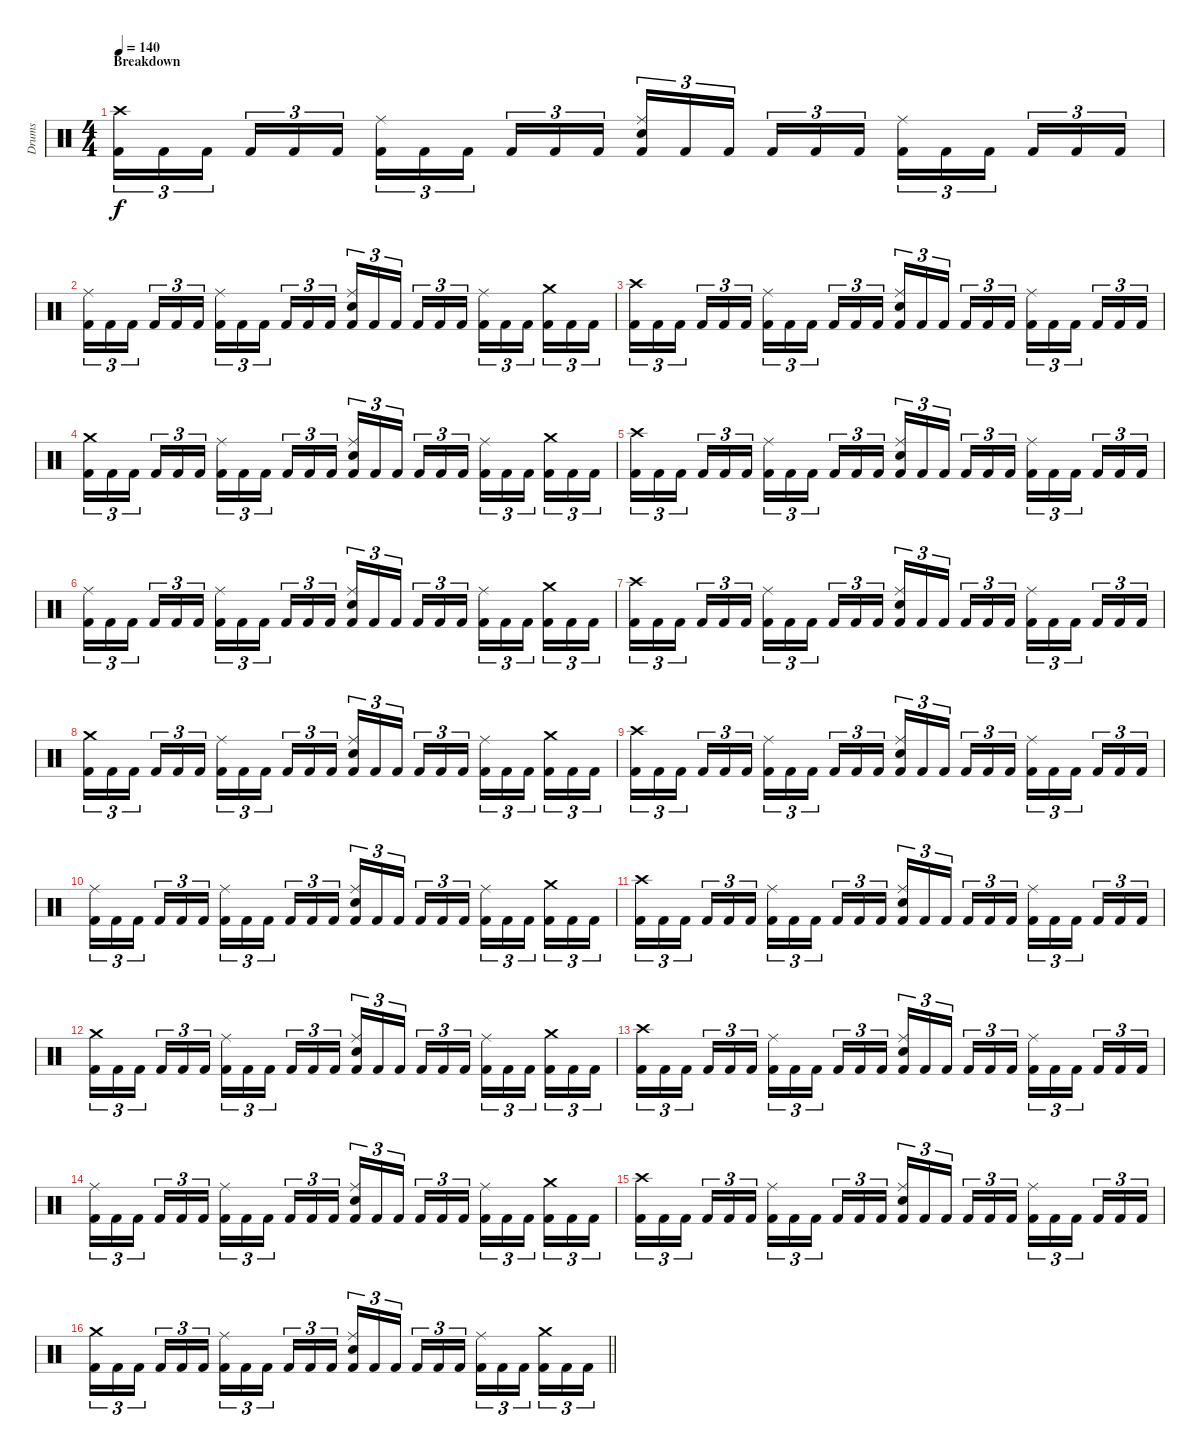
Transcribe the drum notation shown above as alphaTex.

\track ("Drums" "Drums") {instrument percussion}
\staff {score}
\articulation defaults
\ts (4 4)
\section ("" "Breakdown")
\tempo 140
\clef neutral
\ks c
("Crash high (hit)" "Kick (hit) 2").16{tu (3 2) dy f} "Kick (hit) 2".16{tu (3 2)} "Kick (hit) 2".16{tu (3 2) beam splitsecondary} "Kick (hit) 2".16{tu (3 2)} "Kick (hit) 2".16{tu (3 2)} "Kick (hit) 2".16{tu (3 2)} ("Ride (middle)" "Kick (hit) 2").16{tu (3 2)} "Kick (hit) 2".16{tu (3 2)} "Kick (hit) 2".16{tu (3 2) beam splitsecondary} "Kick (hit) 2".16{tu (3 2)} "Kick (hit) 2".16{tu (3 2)} "Kick (hit) 2".16{tu (3 2)} ("Ride (middle)" "Snare (hit) 2" "Kick (hit) 2").16{tu (3 2)} "Kick (hit) 2".16{tu (3 2)} "Kick (hit) 2".16{tu (3 2) beam splitsecondary} "Kick (hit) 2".16{tu (3 2)} "Kick (hit) 2".16{tu (3 2)} "Kick (hit) 2".16{tu (3 2)} ("Ride (middle)" "Kick (hit) 2").16{tu (3 2)} "Kick (hit) 2".16{tu (3 2)} "Kick (hit) 2".16{tu (3 2) beam splitsecondary} "Kick (hit) 2".16{tu (3 2)} "Kick (hit) 2".16{tu (3 2)} "Kick (hit) 2".16{tu (3 2)} |
("Ride (middle)" "Kick (hit) 2").16{tu (3 2)} "Kick (hit) 2".16{tu (3 2)} "Kick (hit) 2".16{tu (3 2) beam splitsecondary} "Kick (hit) 2".16{tu (3 2)} "Kick (hit) 2".16{tu (3 2)} "Kick (hit) 2".16{tu (3 2)} ("Ride (middle)" "Kick (hit) 2").16{tu (3 2)} "Kick (hit) 2".16{tu (3 2)} "Kick (hit) 2".16{tu (3 2) beam splitsecondary} "Kick (hit) 2".16{tu (3 2)} "Kick (hit) 2".16{tu (3 2)} "Kick (hit) 2".16{tu (3 2)} ("Ride (middle)" "Snare (hit) 2" "Kick (hit) 2").16{tu (3 2)} "Kick (hit) 2".16{tu (3 2)} "Kick (hit) 2".16{tu (3 2) beam splitsecondary} "Kick (hit) 2".16{tu (3 2)} "Kick (hit) 2".16{tu (3 2)} "Kick (hit) 2".16{tu (3 2)} ("Ride (middle)" "Kick (hit) 2").16{tu (3 2)} "Kick (hit) 2".16{tu (3 2)} "Kick (hit) 2".16{tu (3 2) beam splitsecondary} ("Crash medium (hit)" "Kick (hit) 2").16{tu (3 2)} "Kick (hit) 2".16{tu (3 2)} "Kick (hit) 2".16{tu (3 2)} |
("Crash high (hit)" "Kick (hit) 2").16{tu (3 2)} "Kick (hit) 2".16{tu (3 2)} "Kick (hit) 2".16{tu (3 2) beam splitsecondary} "Kick (hit) 2".16{tu (3 2)} "Kick (hit) 2".16{tu (3 2)} "Kick (hit) 2".16{tu (3 2)} ("Ride (middle)" "Kick (hit) 2").16{tu (3 2)} "Kick (hit) 2".16{tu (3 2)} "Kick (hit) 2".16{tu (3 2) beam splitsecondary} "Kick (hit) 2".16{tu (3 2)} "Kick (hit) 2".16{tu (3 2)} "Kick (hit) 2".16{tu (3 2)} ("Ride (middle)" "Snare (hit) 2" "Kick (hit) 2").16{tu (3 2)} "Kick (hit) 2".16{tu (3 2)} "Kick (hit) 2".16{tu (3 2) beam splitsecondary} "Kick (hit) 2".16{tu (3 2)} "Kick (hit) 2".16{tu (3 2)} "Kick (hit) 2".16{tu (3 2)} ("Ride (middle)" "Kick (hit) 2").16{tu (3 2)} "Kick (hit) 2".16{tu (3 2)} "Kick (hit) 2".16{tu (3 2) beam splitsecondary} "Kick (hit) 2".16{tu (3 2)} "Kick (hit) 2".16{tu (3 2)} "Kick (hit) 2".16{tu (3 2)} |
("Crash medium (hit)" "Kick (hit) 2").16{tu (3 2)} "Kick (hit) 2".16{tu (3 2)} "Kick (hit) 2".16{tu (3 2) beam splitsecondary} "Kick (hit) 2".16{tu (3 2)} "Kick (hit) 2".16{tu (3 2)} "Kick (hit) 2".16{tu (3 2)} ("Ride (middle)" "Kick (hit) 2").16{tu (3 2)} "Kick (hit) 2".16{tu (3 2)} "Kick (hit) 2".16{tu (3 2) beam splitsecondary} "Kick (hit) 2".16{tu (3 2)} "Kick (hit) 2".16{tu (3 2)} "Kick (hit) 2".16{tu (3 2)} ("Ride (middle)" "Snare (hit) 2" "Kick (hit) 2").16{tu (3 2)} "Kick (hit) 2".16{tu (3 2)} "Kick (hit) 2".16{tu (3 2) beam splitsecondary} "Kick (hit) 2".16{tu (3 2)} "Kick (hit) 2".16{tu (3 2)} "Kick (hit) 2".16{tu (3 2)} ("Ride (middle)" "Kick (hit) 2").16{tu (3 2)} "Kick (hit) 2".16{tu (3 2)} "Kick (hit) 2".16{tu (3 2) beam splitsecondary} ("Crash medium (hit)" "Kick (hit) 2").16{tu (3 2)} "Kick (hit) 2".16{tu (3 2)} "Kick (hit) 2".16{tu (3 2)} |
("Crash high (hit)" "Kick (hit) 2").16{tu (3 2)} "Kick (hit) 2".16{tu (3 2)} "Kick (hit) 2".16{tu (3 2) beam splitsecondary} "Kick (hit) 2".16{tu (3 2)} "Kick (hit) 2".16{tu (3 2)} "Kick (hit) 2".16{tu (3 2)} ("Ride (middle)" "Kick (hit) 2").16{tu (3 2)} "Kick (hit) 2".16{tu (3 2)} "Kick (hit) 2".16{tu (3 2) beam splitsecondary} "Kick (hit) 2".16{tu (3 2)} "Kick (hit) 2".16{tu (3 2)} "Kick (hit) 2".16{tu (3 2)} ("Ride (middle)" "Snare (hit) 2" "Kick (hit) 2").16{tu (3 2)} "Kick (hit) 2".16{tu (3 2)} "Kick (hit) 2".16{tu (3 2) beam splitsecondary} "Kick (hit) 2".16{tu (3 2)} "Kick (hit) 2".16{tu (3 2)} "Kick (hit) 2".16{tu (3 2)} ("Ride (middle)" "Kick (hit) 2").16{tu (3 2)} "Kick (hit) 2".16{tu (3 2)} "Kick (hit) 2".16{tu (3 2) beam splitsecondary} "Kick (hit) 2".16{tu (3 2)} "Kick (hit) 2".16{tu (3 2)} "Kick (hit) 2".16{tu (3 2)} |
("Ride (middle)" "Kick (hit) 2").16{tu (3 2)} "Kick (hit) 2".16{tu (3 2)} "Kick (hit) 2".16{tu (3 2) beam splitsecondary} "Kick (hit) 2".16{tu (3 2)} "Kick (hit) 2".16{tu (3 2)} "Kick (hit) 2".16{tu (3 2)} ("Ride (middle)" "Kick (hit) 2").16{tu (3 2)} "Kick (hit) 2".16{tu (3 2)} "Kick (hit) 2".16{tu (3 2) beam splitsecondary} "Kick (hit) 2".16{tu (3 2)} "Kick (hit) 2".16{tu (3 2)} "Kick (hit) 2".16{tu (3 2)} ("Ride (middle)" "Snare (hit) 2" "Kick (hit) 2").16{tu (3 2)} "Kick (hit) 2".16{tu (3 2)} "Kick (hit) 2".16{tu (3 2) beam splitsecondary} "Kick (hit) 2".16{tu (3 2)} "Kick (hit) 2".16{tu (3 2)} "Kick (hit) 2".16{tu (3 2)} ("Ride (middle)" "Kick (hit) 2").16{tu (3 2)} "Kick (hit) 2".16{tu (3 2)} "Kick (hit) 2".16{tu (3 2) beam splitsecondary} ("Crash medium (hit)" "Kick (hit) 2").16{tu (3 2)} "Kick (hit) 2".16{tu (3 2)} "Kick (hit) 2".16{tu (3 2)} |
("Crash high (hit)" "Kick (hit) 2").16{tu (3 2)} "Kick (hit) 2".16{tu (3 2)} "Kick (hit) 2".16{tu (3 2) beam splitsecondary} "Kick (hit) 2".16{tu (3 2)} "Kick (hit) 2".16{tu (3 2)} "Kick (hit) 2".16{tu (3 2)} ("Ride (middle)" "Kick (hit) 2").16{tu (3 2)} "Kick (hit) 2".16{tu (3 2)} "Kick (hit) 2".16{tu (3 2) beam splitsecondary} "Kick (hit) 2".16{tu (3 2)} "Kick (hit) 2".16{tu (3 2)} "Kick (hit) 2".16{tu (3 2)} ("Ride (middle)" "Snare (hit) 2" "Kick (hit) 2").16{tu (3 2)} "Kick (hit) 2".16{tu (3 2)} "Kick (hit) 2".16{tu (3 2) beam splitsecondary} "Kick (hit) 2".16{tu (3 2)} "Kick (hit) 2".16{tu (3 2)} "Kick (hit) 2".16{tu (3 2)} ("Ride (middle)" "Kick (hit) 2").16{tu (3 2)} "Kick (hit) 2".16{tu (3 2)} "Kick (hit) 2".16{tu (3 2) beam splitsecondary} "Kick (hit) 2".16{tu (3 2)} "Kick (hit) 2".16{tu (3 2)} "Kick (hit) 2".16{tu (3 2)} |
("Crash medium (hit)" "Kick (hit) 2").16{tu (3 2)} "Kick (hit) 2".16{tu (3 2)} "Kick (hit) 2".16{tu (3 2) beam splitsecondary} "Kick (hit) 2".16{tu (3 2)} "Kick (hit) 2".16{tu (3 2)} "Kick (hit) 2".16{tu (3 2)} ("Ride (middle)" "Kick (hit) 2").16{tu (3 2)} "Kick (hit) 2".16{tu (3 2)} "Kick (hit) 2".16{tu (3 2) beam splitsecondary} "Kick (hit) 2".16{tu (3 2)} "Kick (hit) 2".16{tu (3 2)} "Kick (hit) 2".16{tu (3 2)} ("Ride (middle)" "Snare (hit) 2" "Kick (hit) 2").16{tu (3 2)} "Kick (hit) 2".16{tu (3 2)} "Kick (hit) 2".16{tu (3 2) beam splitsecondary} "Kick (hit) 2".16{tu (3 2)} "Kick (hit) 2".16{tu (3 2)} "Kick (hit) 2".16{tu (3 2)} ("Ride (middle)" "Kick (hit) 2").16{tu (3 2)} "Kick (hit) 2".16{tu (3 2)} "Kick (hit) 2".16{tu (3 2) beam splitsecondary} ("Crash medium (hit)" "Kick (hit) 2").16{tu (3 2)} "Kick (hit) 2".16{tu (3 2)} "Kick (hit) 2".16{tu (3 2)} |
("Crash high (hit)" "Kick (hit) 2").16{tu (3 2)} "Kick (hit) 2".16{tu (3 2)} "Kick (hit) 2".16{tu (3 2) beam splitsecondary} "Kick (hit) 2".16{tu (3 2)} "Kick (hit) 2".16{tu (3 2)} "Kick (hit) 2".16{tu (3 2)} ("Ride (middle)" "Kick (hit) 2").16{tu (3 2)} "Kick (hit) 2".16{tu (3 2)} "Kick (hit) 2".16{tu (3 2) beam splitsecondary} "Kick (hit) 2".16{tu (3 2)} "Kick (hit) 2".16{tu (3 2)} "Kick (hit) 2".16{tu (3 2)} ("Ride (middle)" "Snare (hit) 2" "Kick (hit) 2").16{tu (3 2)} "Kick (hit) 2".16{tu (3 2)} "Kick (hit) 2".16{tu (3 2) beam splitsecondary} "Kick (hit) 2".16{tu (3 2)} "Kick (hit) 2".16{tu (3 2)} "Kick (hit) 2".16{tu (3 2)} ("Ride (middle)" "Kick (hit) 2").16{tu (3 2)} "Kick (hit) 2".16{tu (3 2)} "Kick (hit) 2".16{tu (3 2) beam splitsecondary} "Kick (hit) 2".16{tu (3 2)} "Kick (hit) 2".16{tu (3 2)} "Kick (hit) 2".16{tu (3 2)} |
("Ride (middle)" "Kick (hit) 2").16{tu (3 2)} "Kick (hit) 2".16{tu (3 2)} "Kick (hit) 2".16{tu (3 2) beam splitsecondary} "Kick (hit) 2".16{tu (3 2)} "Kick (hit) 2".16{tu (3 2)} "Kick (hit) 2".16{tu (3 2)} ("Ride (middle)" "Kick (hit) 2").16{tu (3 2)} "Kick (hit) 2".16{tu (3 2)} "Kick (hit) 2".16{tu (3 2) beam splitsecondary} "Kick (hit) 2".16{tu (3 2)} "Kick (hit) 2".16{tu (3 2)} "Kick (hit) 2".16{tu (3 2)} ("Ride (middle)" "Snare (hit) 2" "Kick (hit) 2").16{tu (3 2)} "Kick (hit) 2".16{tu (3 2)} "Kick (hit) 2".16{tu (3 2) beam splitsecondary} "Kick (hit) 2".16{tu (3 2)} "Kick (hit) 2".16{tu (3 2)} "Kick (hit) 2".16{tu (3 2)} ("Ride (middle)" "Kick (hit) 2").16{tu (3 2)} "Kick (hit) 2".16{tu (3 2)} "Kick (hit) 2".16{tu (3 2) beam splitsecondary} ("Crash medium (hit)" "Kick (hit) 2").16{tu (3 2)} "Kick (hit) 2".16{tu (3 2)} "Kick (hit) 2".16{tu (3 2)} |
("Crash high (hit)" "Kick (hit) 2").16{tu (3 2)} "Kick (hit) 2".16{tu (3 2)} "Kick (hit) 2".16{tu (3 2) beam splitsecondary} "Kick (hit) 2".16{tu (3 2)} "Kick (hit) 2".16{tu (3 2)} "Kick (hit) 2".16{tu (3 2)} ("Ride (middle)" "Kick (hit) 2").16{tu (3 2)} "Kick (hit) 2".16{tu (3 2)} "Kick (hit) 2".16{tu (3 2) beam splitsecondary} "Kick (hit) 2".16{tu (3 2)} "Kick (hit) 2".16{tu (3 2)} "Kick (hit) 2".16{tu (3 2)} ("Ride (middle)" "Snare (hit) 2" "Kick (hit) 2").16{tu (3 2)} "Kick (hit) 2".16{tu (3 2)} "Kick (hit) 2".16{tu (3 2) beam splitsecondary} "Kick (hit) 2".16{tu (3 2)} "Kick (hit) 2".16{tu (3 2)} "Kick (hit) 2".16{tu (3 2)} ("Ride (middle)" "Kick (hit) 2").16{tu (3 2)} "Kick (hit) 2".16{tu (3 2)} "Kick (hit) 2".16{tu (3 2) beam splitsecondary} "Kick (hit) 2".16{tu (3 2)} "Kick (hit) 2".16{tu (3 2)} "Kick (hit) 2".16{tu (3 2)} |
("Crash medium (hit)" "Kick (hit) 2").16{tu (3 2)} "Kick (hit) 2".16{tu (3 2)} "Kick (hit) 2".16{tu (3 2) beam splitsecondary} "Kick (hit) 2".16{tu (3 2)} "Kick (hit) 2".16{tu (3 2)} "Kick (hit) 2".16{tu (3 2)} ("Ride (middle)" "Kick (hit) 2").16{tu (3 2)} "Kick (hit) 2".16{tu (3 2)} "Kick (hit) 2".16{tu (3 2) beam splitsecondary} "Kick (hit) 2".16{tu (3 2)} "Kick (hit) 2".16{tu (3 2)} "Kick (hit) 2".16{tu (3 2)} ("Ride (middle)" "Snare (hit) 2" "Kick (hit) 2").16{tu (3 2)} "Kick (hit) 2".16{tu (3 2)} "Kick (hit) 2".16{tu (3 2) beam splitsecondary} "Kick (hit) 2".16{tu (3 2)} "Kick (hit) 2".16{tu (3 2)} "Kick (hit) 2".16{tu (3 2)} ("Ride (middle)" "Kick (hit) 2").16{tu (3 2)} "Kick (hit) 2".16{tu (3 2)} "Kick (hit) 2".16{tu (3 2) beam splitsecondary} ("Crash medium (hit)" "Kick (hit) 2").16{tu (3 2)} "Kick (hit) 2".16{tu (3 2)} "Kick (hit) 2".16{tu (3 2)} |
("Crash high (hit)" "Kick (hit) 2").16{tu (3 2)} "Kick (hit) 2".16{tu (3 2)} "Kick (hit) 2".16{tu (3 2) beam splitsecondary} "Kick (hit) 2".16{tu (3 2)} "Kick (hit) 2".16{tu (3 2)} "Kick (hit) 2".16{tu (3 2)} ("Ride (middle)" "Kick (hit) 2").16{tu (3 2)} "Kick (hit) 2".16{tu (3 2)} "Kick (hit) 2".16{tu (3 2) beam splitsecondary} "Kick (hit) 2".16{tu (3 2)} "Kick (hit) 2".16{tu (3 2)} "Kick (hit) 2".16{tu (3 2)} ("Ride (middle)" "Snare (hit) 2" "Kick (hit) 2").16{tu (3 2)} "Kick (hit) 2".16{tu (3 2)} "Kick (hit) 2".16{tu (3 2) beam splitsecondary} "Kick (hit) 2".16{tu (3 2)} "Kick (hit) 2".16{tu (3 2)} "Kick (hit) 2".16{tu (3 2)} ("Ride (middle)" "Kick (hit) 2").16{tu (3 2)} "Kick (hit) 2".16{tu (3 2)} "Kick (hit) 2".16{tu (3 2) beam splitsecondary} "Kick (hit) 2".16{tu (3 2)} "Kick (hit) 2".16{tu (3 2)} "Kick (hit) 2".16{tu (3 2)} |
("Ride (middle)" "Kick (hit) 2").16{tu (3 2)} "Kick (hit) 2".16{tu (3 2)} "Kick (hit) 2".16{tu (3 2) beam splitsecondary} "Kick (hit) 2".16{tu (3 2)} "Kick (hit) 2".16{tu (3 2)} "Kick (hit) 2".16{tu (3 2)} ("Ride (middle)" "Kick (hit) 2").16{tu (3 2)} "Kick (hit) 2".16{tu (3 2)} "Kick (hit) 2".16{tu (3 2) beam splitsecondary} "Kick (hit) 2".16{tu (3 2)} "Kick (hit) 2".16{tu (3 2)} "Kick (hit) 2".16{tu (3 2)} ("Ride (middle)" "Snare (hit) 2" "Kick (hit) 2").16{tu (3 2)} "Kick (hit) 2".16{tu (3 2)} "Kick (hit) 2".16{tu (3 2) beam splitsecondary} "Kick (hit) 2".16{tu (3 2)} "Kick (hit) 2".16{tu (3 2)} "Kick (hit) 2".16{tu (3 2)} ("Ride (middle)" "Kick (hit) 2").16{tu (3 2)} "Kick (hit) 2".16{tu (3 2)} "Kick (hit) 2".16{tu (3 2) beam splitsecondary} ("Crash medium (hit)" "Kick (hit) 2").16{tu (3 2)} "Kick (hit) 2".16{tu (3 2)} "Kick (hit) 2".16{tu (3 2)} |
("Crash high (hit)" "Kick (hit) 2").16{tu (3 2)} "Kick (hit) 2".16{tu (3 2)} "Kick (hit) 2".16{tu (3 2) beam splitsecondary} "Kick (hit) 2".16{tu (3 2)} "Kick (hit) 2".16{tu (3 2)} "Kick (hit) 2".16{tu (3 2)} ("Ride (middle)" "Kick (hit) 2").16{tu (3 2)} "Kick (hit) 2".16{tu (3 2)} "Kick (hit) 2".16{tu (3 2) beam splitsecondary} "Kick (hit) 2".16{tu (3 2)} "Kick (hit) 2".16{tu (3 2)} "Kick (hit) 2".16{tu (3 2)} ("Ride (middle)" "Snare (hit) 2" "Kick (hit) 2").16{tu (3 2)} "Kick (hit) 2".16{tu (3 2)} "Kick (hit) 2".16{tu (3 2) beam splitsecondary} "Kick (hit) 2".16{tu (3 2)} "Kick (hit) 2".16{tu (3 2)} "Kick (hit) 2".16{tu (3 2)} ("Ride (middle)" "Kick (hit) 2").16{tu (3 2)} "Kick (hit) 2".16{tu (3 2)} "Kick (hit) 2".16{tu (3 2) beam splitsecondary} "Kick (hit) 2".16{tu (3 2)} "Kick (hit) 2".16{tu (3 2)} "Kick (hit) 2".16{tu (3 2)} |
\barLineRight lightlight
("Crash medium (hit)" "Kick (hit) 2").16{tu (3 2)} "Kick (hit) 2".16{tu (3 2)} "Kick (hit) 2".16{tu (3 2) beam splitsecondary} "Kick (hit) 2".16{tu (3 2)} "Kick (hit) 2".16{tu (3 2)} "Kick (hit) 2".16{tu (3 2)} ("Ride (middle)" "Kick (hit) 2").16{tu (3 2)} "Kick (hit) 2".16{tu (3 2)} "Kick (hit) 2".16{tu (3 2) beam splitsecondary} "Kick (hit) 2".16{tu (3 2)} "Kick (hit) 2".16{tu (3 2)} "Kick (hit) 2".16{tu (3 2)} ("Ride (middle)" "Snare (hit) 2" "Kick (hit) 2").16{tu (3 2)} "Kick (hit) 2".16{tu (3 2)} "Kick (hit) 2".16{tu (3 2) beam splitsecondary} "Kick (hit) 2".16{tu (3 2)} "Kick (hit) 2".16{tu (3 2)} "Kick (hit) 2".16{tu (3 2)} ("Ride (middle)" "Kick (hit) 2").16{tu (3 2)} "Kick (hit) 2".16{tu (3 2)} "Kick (hit) 2".16{tu (3 2) beam splitsecondary} ("Crash medium (hit)" "Kick (hit) 2").16{tu (3 2)} "Kick (hit) 2".16{tu (3 2)} "Kick (hit) 2".16{tu (3 2)}
